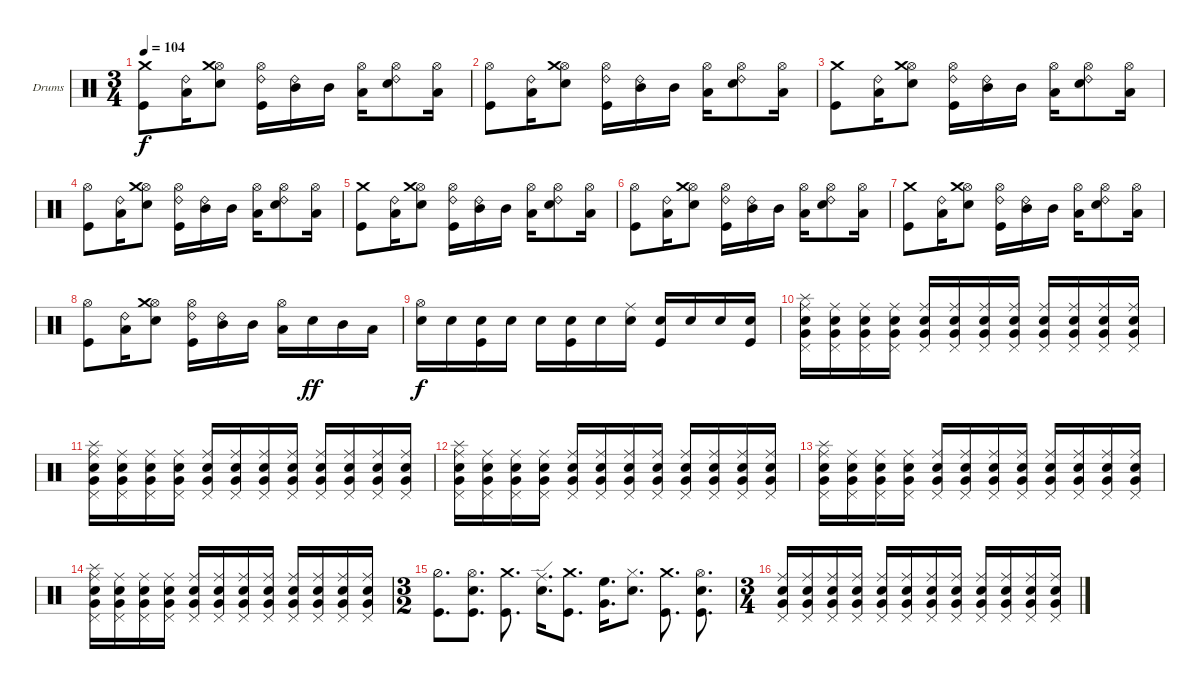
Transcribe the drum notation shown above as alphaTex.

\bracketExtendMode groupsimilarinstruments
\firstSystemTrackNameOrientation horizontal
\otherSystemsTrackNameOrientation horizontal
\track ("Drumkit" "Drums") {instrument percussion}
\staff {score}
\articulation defaults
\ts (3 4)
\tempo 104
\clef neutral
\ks c
("Kick (hit)" "Crash medium (hit)").8{dy f} ("Low Tom (hit)" "Ride (bell) 2").16 ("Snare (hit) 2" "Hi-Hat (open)" "Crash medium (hit)").8 ("Hi-Hat (open)" "Kick (hit)" "Ride (bell) 2").16 ("Mid Tom (hit)" "Ride (bell) 2").16 "Mid Tom (hit)".16 ("Hi-Hat (open)" "Low Tom (hit)").16 ("Snare (hit) 2" "Hi-Hat (open)" "Ride (bell) 2").8 ("Hi-Hat (open)" "Low Tom (hit)").16 |
("Kick (hit)" "Hi-Hat (open)").8 ("Low Tom (hit)" "Ride (bell) 2").16 ("Snare (hit) 2" "Hi-Hat (open)" "Crash medium (hit)").8 ("Hi-Hat (open)" "Kick (hit)" "Ride (bell) 2").16 ("Mid Tom (hit)" "Ride (bell) 2").16 "Mid Tom (hit)".16 ("Hi-Hat (open)" "Low Tom (hit)").16 ("Snare (hit) 2" "Hi-Hat (open)" "Ride (bell) 2").8 ("Hi-Hat (open)" "Low Tom (hit)").16 |
("Kick (hit)" "Crash medium (hit)").8 ("Low Tom (hit)" "Ride (bell) 2").16 ("Snare (hit) 2" "Hi-Hat (open)" "Crash medium (hit)").8 ("Hi-Hat (open)" "Kick (hit)" "Ride (bell) 2").16 ("Mid Tom (hit)" "Ride (bell) 2").16 "Mid Tom (hit)".16 ("Hi-Hat (open)" "Low Tom (hit)").16 ("Snare (hit) 2" "Hi-Hat (open)" "Ride (bell) 2").8 ("Hi-Hat (open)" "Low Tom (hit)").16 |
("Kick (hit)" "Hi-Hat (open)").8 ("Low Tom (hit)" "Ride (bell) 2").16 ("Snare (hit) 2" "Hi-Hat (open)" "Crash medium (hit)").8 ("Hi-Hat (open)" "Kick (hit)" "Ride (bell) 2").16 ("Mid Tom (hit)" "Ride (bell) 2").16 "Mid Tom (hit)".16 ("Hi-Hat (open)" "Low Tom (hit)").16 ("Snare (hit) 2" "Hi-Hat (open)" "Ride (bell) 2").8 ("Hi-Hat (open)" "Low Tom (hit)").16 |
("Kick (hit)" "Crash medium (hit)").8 ("Low Tom (hit)" "Ride (bell) 2").16 ("Snare (hit) 2" "Hi-Hat (open)" "Crash medium (hit)").8 ("Hi-Hat (open)" "Kick (hit)" "Ride (bell) 2").16 ("Mid Tom (hit)" "Ride (bell) 2").16 "Mid Tom (hit)".16 ("Hi-Hat (open)" "Low Tom (hit)").16 ("Snare (hit) 2" "Hi-Hat (open)" "Ride (bell) 2").8 ("Hi-Hat (open)" "Low Tom (hit)").16 |
("Kick (hit)" "Hi-Hat (open)").8 ("Low Tom (hit)" "Ride (bell) 2").16 ("Snare (hit) 2" "Hi-Hat (open)" "Crash medium (hit)").8 ("Hi-Hat (open)" "Kick (hit)" "Ride (bell) 2").16 ("Mid Tom (hit)" "Ride (bell) 2").16 "Mid Tom (hit)".16 ("Hi-Hat (open)" "Low Tom (hit)").16 ("Snare (hit) 2" "Hi-Hat (open)" "Ride (bell) 2").8 ("Hi-Hat (open)" "Low Tom (hit)").16 |
("Kick (hit)" "Crash medium (hit)").8 ("Low Tom (hit)" "Ride (bell) 2").16 ("Snare (hit) 2" "Hi-Hat (open)" "Crash medium (hit)").8 ("Hi-Hat (open)" "Kick (hit)" "Ride (bell) 2").16 ("Mid Tom (hit)" "Ride (bell) 2").16 "Mid Tom (hit)".16 ("Hi-Hat (open)" "Low Tom (hit)").16 ("Snare (hit) 2" "Hi-Hat (open)" "Ride (bell) 2").8 ("Hi-Hat (open)" "Low Tom (hit)").16 |
("Kick (hit)" "Hi-Hat (open)").8 ("Low Tom (hit)" "Ride (bell) 2").16 ("Snare (hit) 2" "Hi-Hat (open)" "Crash medium (hit)").8 ("Hi-Hat (open)" "Kick (hit)" "Ride (bell) 2").16 ("Mid Tom (hit)" "Ride (bell) 2").16 "Mid Tom (hit)".16 ("Hi-Hat (open)" "Low Tom (hit)").16 "Snare (hit) 2".16{dy ff} "Mid Tom (hit)".16 "Low Tom (hit)".16 |
("Snare (hit) 2" "Hi-Hat (open)").16{dy f} "Snare (hit) 2".16 ("Snare (hit) 2" "Kick (hit)").16 "Snare (hit) 2".16 "Snare (hit) 2".16 ("Snare (hit) 2" "Kick (hit)").16 "Snare (hit) 2".16 ("Snare (hit) 2" "Ride (middle)").16 ("Snare (hit) 2" "Kick (hit)").16 "Snare (hit) 2".16 "Snare (hit) 2".16 ("Snare (hit) 2" "Kick (hit)").16 |
("Pedal Hi-Hat (hit)" "Snare (hit) 2" "Ride (middle)" "Very Low Tom (hit)" "Splash (hit)").16 ("Pedal Hi-Hat (hit)" "Snare (hit) 2" "Ride (middle)" "Very Low Tom (hit)").16 ("Pedal Hi-Hat (hit)" "Snare (hit) 2" "Ride (middle)" "Very Low Tom (hit)").16 ("Pedal Hi-Hat (hit)" "Snare (hit) 2" "Ride (middle)" "Very Low Tom (hit)").16 ("Pedal Hi-Hat (hit)" "Snare (hit) 2" "Ride (middle)" "Very Low Tom (hit)").16 ("Pedal Hi-Hat (hit)" "Snare (hit) 2" "Ride (middle)" "Very Low Tom (hit)").16 ("Pedal Hi-Hat (hit)" "Snare (hit) 2" "Ride (middle)" "Very Low Tom (hit)").16 ("Pedal Hi-Hat (hit)" "Snare (hit) 2" "Ride (middle)" "Very Low Tom (hit)").16 ("Pedal Hi-Hat (hit)" "Snare (hit) 2" "Ride (middle)" "Very Low Tom (hit)").16 ("Pedal Hi-Hat (hit)" "Snare (hit) 2" "Ride (middle)" "Very Low Tom (hit)").16 ("Pedal Hi-Hat (hit)" "Snare (hit) 2" "Ride (middle)" "Very Low Tom (hit)").16 ("Pedal Hi-Hat (hit)" "Snare (hit) 2" "Ride (middle)" "Very Low Tom (hit)").16 |
("Pedal Hi-Hat (hit)" "Snare (hit) 2" "Ride (middle)" "Very Low Tom (hit)" "Splash (hit)").16 ("Pedal Hi-Hat (hit)" "Snare (hit) 2" "Ride (middle)" "Very Low Tom (hit)").16 ("Pedal Hi-Hat (hit)" "Snare (hit) 2" "Ride (middle)" "Very Low Tom (hit)").16 ("Pedal Hi-Hat (hit)" "Snare (hit) 2" "Ride (middle)" "Very Low Tom (hit)").16 ("Pedal Hi-Hat (hit)" "Snare (hit) 2" "Ride (middle)" "Very Low Tom (hit)").16 ("Pedal Hi-Hat (hit)" "Snare (hit) 2" "Ride (middle)" "Very Low Tom (hit)").16 ("Pedal Hi-Hat (hit)" "Snare (hit) 2" "Ride (middle)" "Very Low Tom (hit)").16 ("Pedal Hi-Hat (hit)" "Snare (hit) 2" "Ride (middle)" "Very Low Tom (hit)").16 ("Pedal Hi-Hat (hit)" "Snare (hit) 2" "Ride (middle)" "Very Low Tom (hit)").16 ("Pedal Hi-Hat (hit)" "Snare (hit) 2" "Ride (middle)" "Very Low Tom (hit)").16 ("Pedal Hi-Hat (hit)" "Snare (hit) 2" "Ride (middle)" "Very Low Tom (hit)").16 ("Pedal Hi-Hat (hit)" "Snare (hit) 2" "Ride (middle)" "Very Low Tom (hit)").16 |
("Pedal Hi-Hat (hit)" "Snare (hit) 2" "Ride (middle)" "Very Low Tom (hit)" "Splash (hit)").16 ("Pedal Hi-Hat (hit)" "Snare (hit) 2" "Ride (middle)" "Very Low Tom (hit)").16 ("Pedal Hi-Hat (hit)" "Snare (hit) 2" "Ride (middle)" "Very Low Tom (hit)").16 ("Pedal Hi-Hat (hit)" "Snare (hit) 2" "Ride (middle)" "Very Low Tom (hit)").16 ("Pedal Hi-Hat (hit)" "Snare (hit) 2" "Ride (middle)" "Very Low Tom (hit)").16 ("Pedal Hi-Hat (hit)" "Snare (hit) 2" "Ride (middle)" "Very Low Tom (hit)").16 ("Pedal Hi-Hat (hit)" "Snare (hit) 2" "Ride (middle)" "Very Low Tom (hit)").16 ("Pedal Hi-Hat (hit)" "Snare (hit) 2" "Ride (middle)" "Very Low Tom (hit)").16 ("Pedal Hi-Hat (hit)" "Snare (hit) 2" "Ride (middle)" "Very Low Tom (hit)").16 ("Pedal Hi-Hat (hit)" "Snare (hit) 2" "Ride (middle)" "Very Low Tom (hit)").16 ("Pedal Hi-Hat (hit)" "Snare (hit) 2" "Ride (middle)" "Very Low Tom (hit)").16 ("Pedal Hi-Hat (hit)" "Snare (hit) 2" "Ride (middle)" "Very Low Tom (hit)").16 |
("Pedal Hi-Hat (hit)" "Snare (hit) 2" "Ride (middle)" "Very Low Tom (hit)" "Splash (hit)").16 ("Pedal Hi-Hat (hit)" "Snare (hit) 2" "Ride (middle)" "Very Low Tom (hit)").16 ("Pedal Hi-Hat (hit)" "Snare (hit) 2" "Ride (middle)" "Very Low Tom (hit)").16 ("Pedal Hi-Hat (hit)" "Snare (hit) 2" "Ride (middle)" "Very Low Tom (hit)").16 ("Pedal Hi-Hat (hit)" "Snare (hit) 2" "Ride (middle)" "Very Low Tom (hit)").16 ("Pedal Hi-Hat (hit)" "Snare (hit) 2" "Ride (middle)" "Very Low Tom (hit)").16 ("Pedal Hi-Hat (hit)" "Snare (hit) 2" "Ride (middle)" "Very Low Tom (hit)").16 ("Pedal Hi-Hat (hit)" "Snare (hit) 2" "Ride (middle)" "Very Low Tom (hit)").16 ("Pedal Hi-Hat (hit)" "Snare (hit) 2" "Ride (middle)" "Very Low Tom (hit)").16 ("Pedal Hi-Hat (hit)" "Snare (hit) 2" "Ride (middle)" "Very Low Tom (hit)").16 ("Pedal Hi-Hat (hit)" "Snare (hit) 2" "Ride (middle)" "Very Low Tom (hit)").16 ("Pedal Hi-Hat (hit)" "Snare (hit) 2" "Ride (middle)" "Very Low Tom (hit)").16 |
("Pedal Hi-Hat (hit)" "Snare (hit) 2" "Ride (middle)" "Very Low Tom (hit)" "Splash (hit)").16 ("Pedal Hi-Hat (hit)" "Snare (hit) 2" "Ride (middle)" "Very Low Tom (hit)").16 ("Pedal Hi-Hat (hit)" "Snare (hit) 2" "Ride (middle)" "Very Low Tom (hit)").16 ("Pedal Hi-Hat (hit)" "Snare (hit) 2" "Ride (middle)" "Very Low Tom (hit)").16 ("Pedal Hi-Hat (hit)" "Snare (hit) 2" "Ride (middle)" "Very Low Tom (hit)").16 ("Pedal Hi-Hat (hit)" "Snare (hit) 2" "Ride (middle)" "Very Low Tom (hit)").16 ("Pedal Hi-Hat (hit)" "Snare (hit) 2" "Ride (middle)" "Very Low Tom (hit)").16 ("Pedal Hi-Hat (hit)" "Snare (hit) 2" "Ride (middle)" "Very Low Tom (hit)").16 ("Pedal Hi-Hat (hit)" "Snare (hit) 2" "Ride (middle)" "Very Low Tom (hit)").16 ("Pedal Hi-Hat (hit)" "Snare (hit) 2" "Ride (middle)" "Very Low Tom (hit)").16 ("Pedal Hi-Hat (hit)" "Snare (hit) 2" "Ride (middle)" "Very Low Tom (hit)").16 ("Pedal Hi-Hat (hit)" "Snare (hit) 2" "Ride (middle)" "Very Low Tom (hit)").16 |
\ts (3 2)
("Kick (hit)" "Hi-Hat (half)").8{d} ("Kick (hit)" "Snare (hit) 2" "Hi-Hat (open)").8{d} ("Kick (hit)" "Crash medium (hit)").8{d} ("Snare (hit) 2" "Ride (edge)").16{d} ("Kick (hit)" "Crash medium (hit)").8{d} ("Very Low Tom (hit)" "High Floor Tom (hit)").16{d} ("Snare (hit) 2" "Hi-Hat (closed)").8{d} ("Kick (hit)" "Crash medium (hit)").8{d} ("Kick (hit)" "Snare (hit) 2" "Hi-Hat (open)").8{d} |
\ts (3 4)
("Pedal Hi-Hat (hit)" "Snare (hit) 2" "Ride (middle)" "Very Low Tom (hit)").16 ("Pedal Hi-Hat (hit)" "Snare (hit) 2" "Ride (middle)" "Very Low Tom (hit)").16 ("Pedal Hi-Hat (hit)" "Snare (hit) 2" "Ride (middle)" "Very Low Tom (hit)").16 ("Pedal Hi-Hat (hit)" "Snare (hit) 2" "Ride (middle)" "Very Low Tom (hit)").16 ("Pedal Hi-Hat (hit)" "Snare (hit) 2" "Ride (middle)" "Very Low Tom (hit)").16 ("Pedal Hi-Hat (hit)" "Snare (hit) 2" "Ride (middle)" "Very Low Tom (hit)").16 ("Pedal Hi-Hat (hit)" "Snare (hit) 2" "Ride (middle)" "Very Low Tom (hit)").16 ("Pedal Hi-Hat (hit)" "Snare (hit) 2" "Ride (middle)" "Very Low Tom (hit)").16 ("Pedal Hi-Hat (hit)" "Snare (hit) 2" "Ride (middle)" "Very Low Tom (hit)").16 ("Pedal Hi-Hat (hit)" "Snare (hit) 2" "Ride (middle)" "Very Low Tom (hit)").16 ("Pedal Hi-Hat (hit)" "Snare (hit) 2" "Ride (middle)" "Very Low Tom (hit)").16 ("Pedal Hi-Hat (hit)" "Snare (hit) 2" "Ride (middle)" "Very Low Tom (hit)").16
